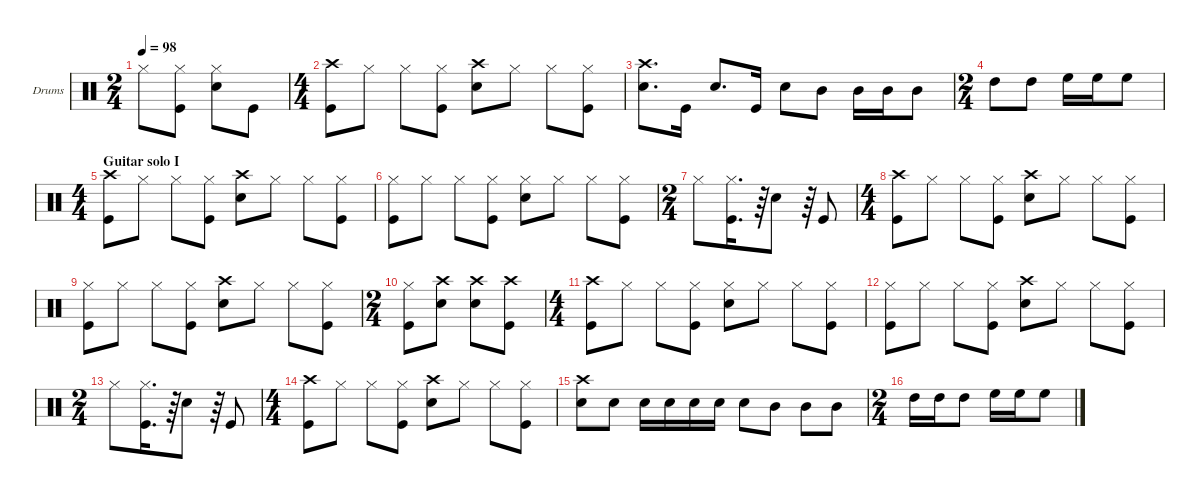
\hideDynamics
\bracketExtendMode groupsimilarinstruments
\firstSystemTrackNameOrientation horizontal
\otherSystemsTrackNameOrientation horizontal
\track ("Drumkit" "Drums") {multiBarRest instrument percussion}
\staff {score}
\articulation defaults
\ts (2 4)
\tempo 98
\clef neutral
\ks c "Hi-Hat (closed)".8{dy f}
("Kick (hit)" "Hi-Hat (closed)").8 ("Hi-Hat (closed)" "Snare (hit) 2").8 "Kick (hit)".8 |
\ts (4 4)
("Crash high (hit)" "Kick (hit)").8 "Hi-Hat (closed)".8 "Hi-Hat (closed)".8 ("Hi-Hat (closed)" "Kick (hit)").8 ("Crash high (hit)" "Snare (hit) 2").8 "Hi-Hat (closed)".8 "Hi-Hat (closed)".8 ("Hi-Hat (closed)" "Kick (hit)").8 |
("Snare (hit) 2" "Crash high (hit)").8{d} "Kick (hit)".16 "Snare (hit) 2".8{d} "Kick (hit)".16 "Snare (hit) 2".8 "Mid Tom (hit)".8 "Mid Tom (hit)".16 "Mid Tom (hit)".16 "Mid Tom (hit)".8 |
\ts (2 4)
"High Tom (hit)".8 "High Tom (hit)".8 "High Floor Tom (hit)".16 "High Floor Tom (hit)".16 "High Floor Tom (hit)".8 |
\ts (4 4)
\section ("" "Guitar solo I")
("Crash high (hit)" "Kick (hit)").8 "Hi-Hat (closed)".8 "Hi-Hat (closed)".8 ("Hi-Hat (closed)" "Kick (hit)").8 ("Crash high (hit)" "Snare (hit) 2").8 "Hi-Hat (closed)".8 "Hi-Hat (closed)".8 ("Hi-Hat (closed)" "Kick (hit)").8 |
("Hi-Hat (closed)" "Kick (hit)").8 "Hi-Hat (closed)".8 "Hi-Hat (closed)".8 ("Hi-Hat (closed)" "Kick (hit)").8 ("Hi-Hat (closed)" "Snare (hit) 2").8 "Hi-Hat (closed)".8 "Hi-Hat (closed)".8 ("Hi-Hat (closed)" "Kick (hit)").8 |
\ts (2 4)
"Hi-Hat (closed)".8 ("Kick (hit)" "Hi-Hat (closed)").16{d} r.64 "Snare (hit) 2".8 r.64 "Kick (hit)".8 |
\ts (4 4)
("Crash high (hit)" "Kick (hit)").8 "Hi-Hat (closed)".8 "Hi-Hat (closed)".8 ("Hi-Hat (closed)" "Kick (hit)").8 ("Crash high (hit)" "Snare (hit) 2").8 "Hi-Hat (closed)".8 "Hi-Hat (closed)".8 ("Hi-Hat (closed)" "Kick (hit)").8 |
("Hi-Hat (closed)" "Kick (hit)").8 "Hi-Hat (closed)".8 "Hi-Hat (closed)".8 ("Hi-Hat (closed)" "Kick (hit)").8 ("Crash high (hit)" "Snare (hit) 2").8 "Hi-Hat (closed)".8 "Hi-Hat (closed)".8 ("Hi-Hat (closed)" "Kick (hit)").8 |
\ts (2 4)
("Hi-Hat (closed)" "Kick (hit)").8 ("Crash high (hit)" "Snare (hit) 2").8 ("Crash high (hit)" "Snare (hit) 2").8 ("Crash high (hit)" "Kick (hit)").8 |
\ts (4 4)
("Kick (hit)" "Crash high (hit)").8 "Hi-Hat (closed)".8 "Hi-Hat (closed)".8 ("Kick (hit)" "Hi-Hat (closed)").8 ("Snare (hit) 2" "Hi-Hat (closed)").8 "Hi-Hat (closed)".8 "Hi-Hat (closed)".8 ("Kick (hit)" "Hi-Hat (closed)").8 |
("Hi-Hat (closed)" "Kick (hit)").8 "Hi-Hat (closed)".8 "Hi-Hat (closed)".8 ("Kick (hit)" "Hi-Hat (closed)").8 ("Crash high (hit)" "Snare (hit) 2").8 "Hi-Hat (closed)".8 "Hi-Hat (closed)".8 ("Kick (hit)" "Hi-Hat (closed)").8 |
\ts (2 4)
"Hi-Hat (closed)".8 ("Kick (hit)" "Hi-Hat (closed)").16{d} r.64 "Snare (hit) 2".8 r.64 "Kick (hit)".8 |
\ts (4 4)
("Crash high (hit)" "Kick (hit)").8 "Hi-Hat (closed)".8 "Hi-Hat (closed)".8 ("Hi-Hat (closed)" "Kick (hit)").8 ("Crash high (hit)" "Snare (hit) 2").8 "Hi-Hat (closed)".8 "Hi-Hat (closed)".8 ("Hi-Hat (closed)" "Kick (hit)").8 |
("Snare (hit) 2" "Crash high (hit)").8 "Snare (hit) 2".8 "Snare (hit) 2".16 "Snare (hit) 2".16 "Snare (hit) 2".16 "Snare (hit) 2".16 "Snare (hit) 2".8 "Mid Tom (hit)".8 "Mid Tom (hit)".8 "Mid Tom (hit)".8 |
\ts (2 4)
"High Tom (hit)".16 "High Tom (hit)".16 "High Tom (hit)".8 "High Floor Tom (hit)".16 "High Floor Tom (hit)".16 "High Floor Tom (hit)".8
